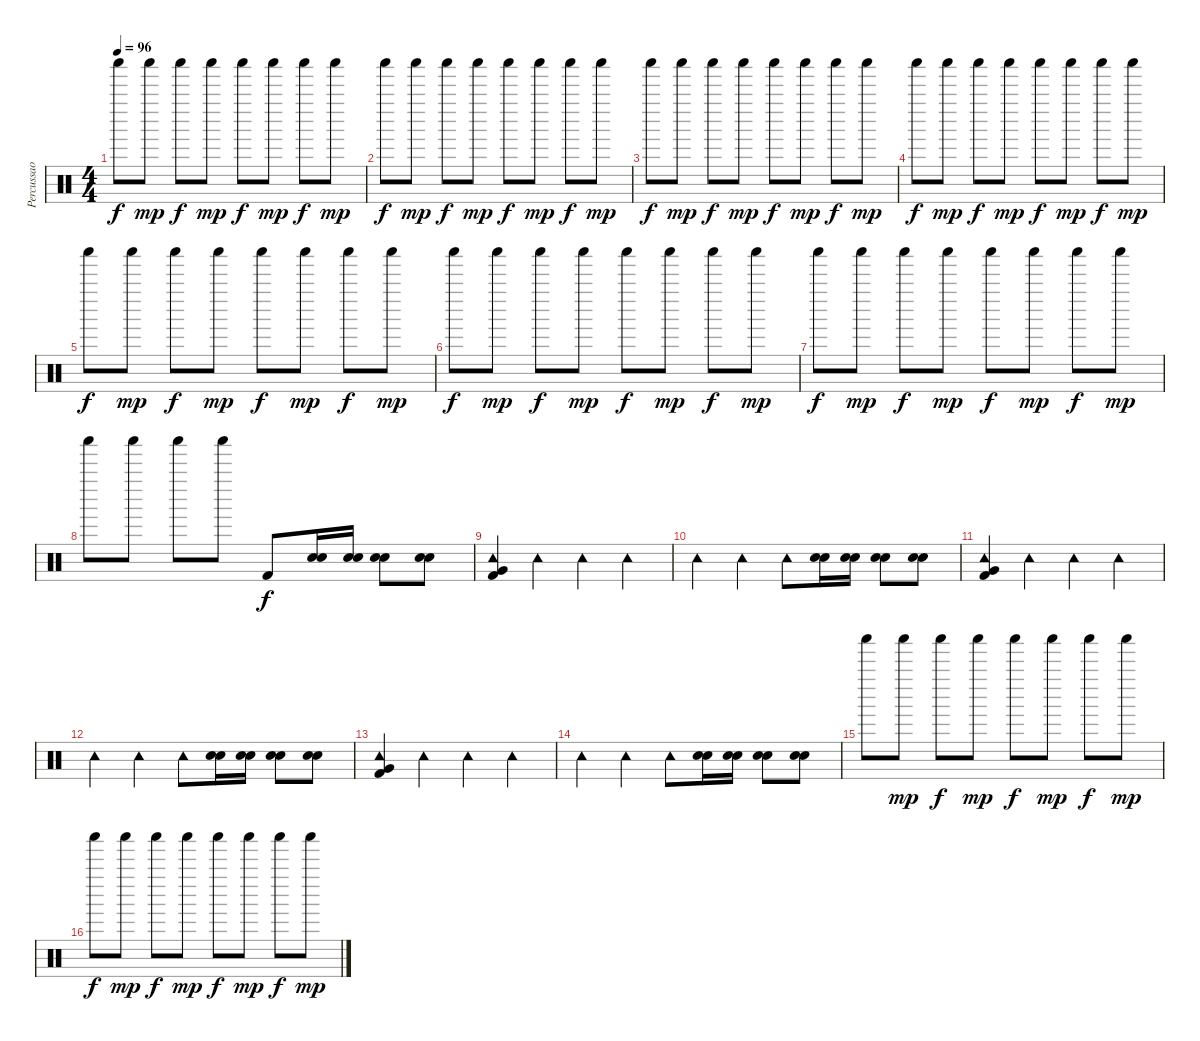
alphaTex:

\track ("Percussao" "Percussao") {instrument percussion}
\staff {score}
\articulation defaults
\ts (4 4)
\tempo 96
\clef neutral
\ks c "Shaker (hit)".8{dy f volume 4} "Shaker (hit)".8{dy mp} "Shaker (hit)".8{dy f} "Shaker (hit)".8{dy mp} "Shaker (hit)".8{dy f} "Shaker (hit)".8{dy mp} "Shaker (hit)".8{dy f} "Shaker (hit)".8{dy mp}
|
"Shaker (hit)".8{dy f volume 4} "Shaker (hit)".8{dy mp} "Shaker (hit)".8{dy f} "Shaker (hit)".8{dy mp} "Shaker (hit)".8{dy f} "Shaker (hit)".8{dy mp} "Shaker (hit)".8{dy f} "Shaker (hit)".8{dy mp} |
"Shaker (hit)".8{dy f volume 4} "Shaker (hit)".8{dy mp} "Shaker (hit)".8{dy f} "Shaker (hit)".8{dy mp} "Shaker (hit)".8{dy f} "Shaker (hit)".8{dy mp} "Shaker (hit)".8{dy f} "Shaker (hit)".8{dy mp} |
"Shaker (hit)".8{dy f volume 4} "Shaker (hit)".8{dy mp} "Shaker (hit)".8{dy f} "Shaker (hit)".8{dy mp} "Shaker (hit)".8{dy f} "Shaker (hit)".8{dy mp} "Shaker (hit)".8{dy f} "Shaker (hit)".8{dy mp} |
"Shaker (hit)".8{dy f volume 4} "Shaker (hit)".8{dy mp} "Shaker (hit)".8{dy f} "Shaker (hit)".8{dy mp} "Shaker (hit)".8{dy f} "Shaker (hit)".8{dy mp} "Shaker (hit)".8{dy f} "Shaker (hit)".8{dy mp} |
"Shaker (hit)".8{dy f volume 4} "Shaker (hit)".8{dy mp} "Shaker (hit)".8{dy f} "Shaker (hit)".8{dy mp} "Shaker (hit)".8{dy f} "Shaker (hit)".8{dy mp} "Shaker (hit)".8{dy f} "Shaker (hit)".8{dy mp} |
"Shaker (hit)".8{dy f volume 4} "Shaker (hit)".8{dy mp} "Shaker (hit)".8{dy f} "Shaker (hit)".8{dy mp} "Shaker (hit)".8{dy f} "Shaker (hit)".8{dy mp} "Shaker (hit)".8{dy f} "Shaker (hit)".8{dy mp} |
"Shaker (hit)".8 "Shaker (hit)".8 "Shaker (hit)".8 "Shaker (hit)".8 "Kick (hit) 2".8{dy f volume 13} ("Electric Snare (hit)" "Snare (hit) 2").16 ("Electric Snare (hit)" "Snare (hit) 2").16 ("Electric Snare (hit)" "Snare (hit) 2").8 ("Electric Snare (hit)" "Snare (hit) 2").8 |
("Tambourine (hit)" "Very Low Tom (hit)" "Kick (hit) 2").4 "Tambourine (hit)".4 "Tambourine (hit)".4 "Tambourine (hit)".4 |
"Tambourine (hit)".4 "Tambourine (hit)".4 "Tambourine (hit)".8 ("Electric Snare (hit)" "Snare (hit) 2").16 ("Electric Snare (hit)" "Snare (hit) 2").16 ("Electric Snare (hit)" "Snare (hit) 2").8 ("Electric Snare (hit)" "Snare (hit) 2").8 |
("Tambourine (hit)" "Very Low Tom (hit)" "Kick (hit) 2").4 "Tambourine (hit)".4 "Tambourine (hit)".4 "Tambourine (hit)".4 |
"Tambourine (hit)".4 "Tambourine (hit)".4 "Tambourine (hit)".8 ("Electric Snare (hit)" "Snare (hit) 2").16 ("Electric Snare (hit)" "Snare (hit) 2").16 ("Electric Snare (hit)" "Snare (hit) 2").8 ("Electric Snare (hit)" "Snare (hit) 2").8 |
("Tambourine (hit)" "Very Low Tom (hit)" "Kick (hit) 2").4 "Tambourine (hit)".4 "Tambourine (hit)".4 "Tambourine (hit)".4 |
"Tambourine (hit)".4 "Tambourine (hit)".4 "Tambourine (hit)".8 ("Electric Snare (hit)" "Snare (hit) 2").16 ("Electric Snare (hit)" "Snare (hit) 2").16 ("Electric Snare (hit)" "Snare (hit) 2").8 ("Electric Snare (hit)" "Snare (hit) 2").8 |
"Shaker (hit)".8{volume 4} "Shaker (hit)".8{dy mp} "Shaker (hit)".8{dy f} "Shaker (hit)".8{dy mp} "Shaker (hit)".8{dy f} "Shaker (hit)".8{dy mp} "Shaker (hit)".8{dy f} "Shaker (hit)".8{dy mp} |
"Shaker (hit)".8{dy f volume 4} "Shaker (hit)".8{dy mp} "Shaker (hit)".8{dy f} "Shaker (hit)".8{dy mp} "Shaker (hit)".8{dy f} "Shaker (hit)".8{dy mp} "Shaker (hit)".8{dy f} "Shaker (hit)".8{dy mp}
